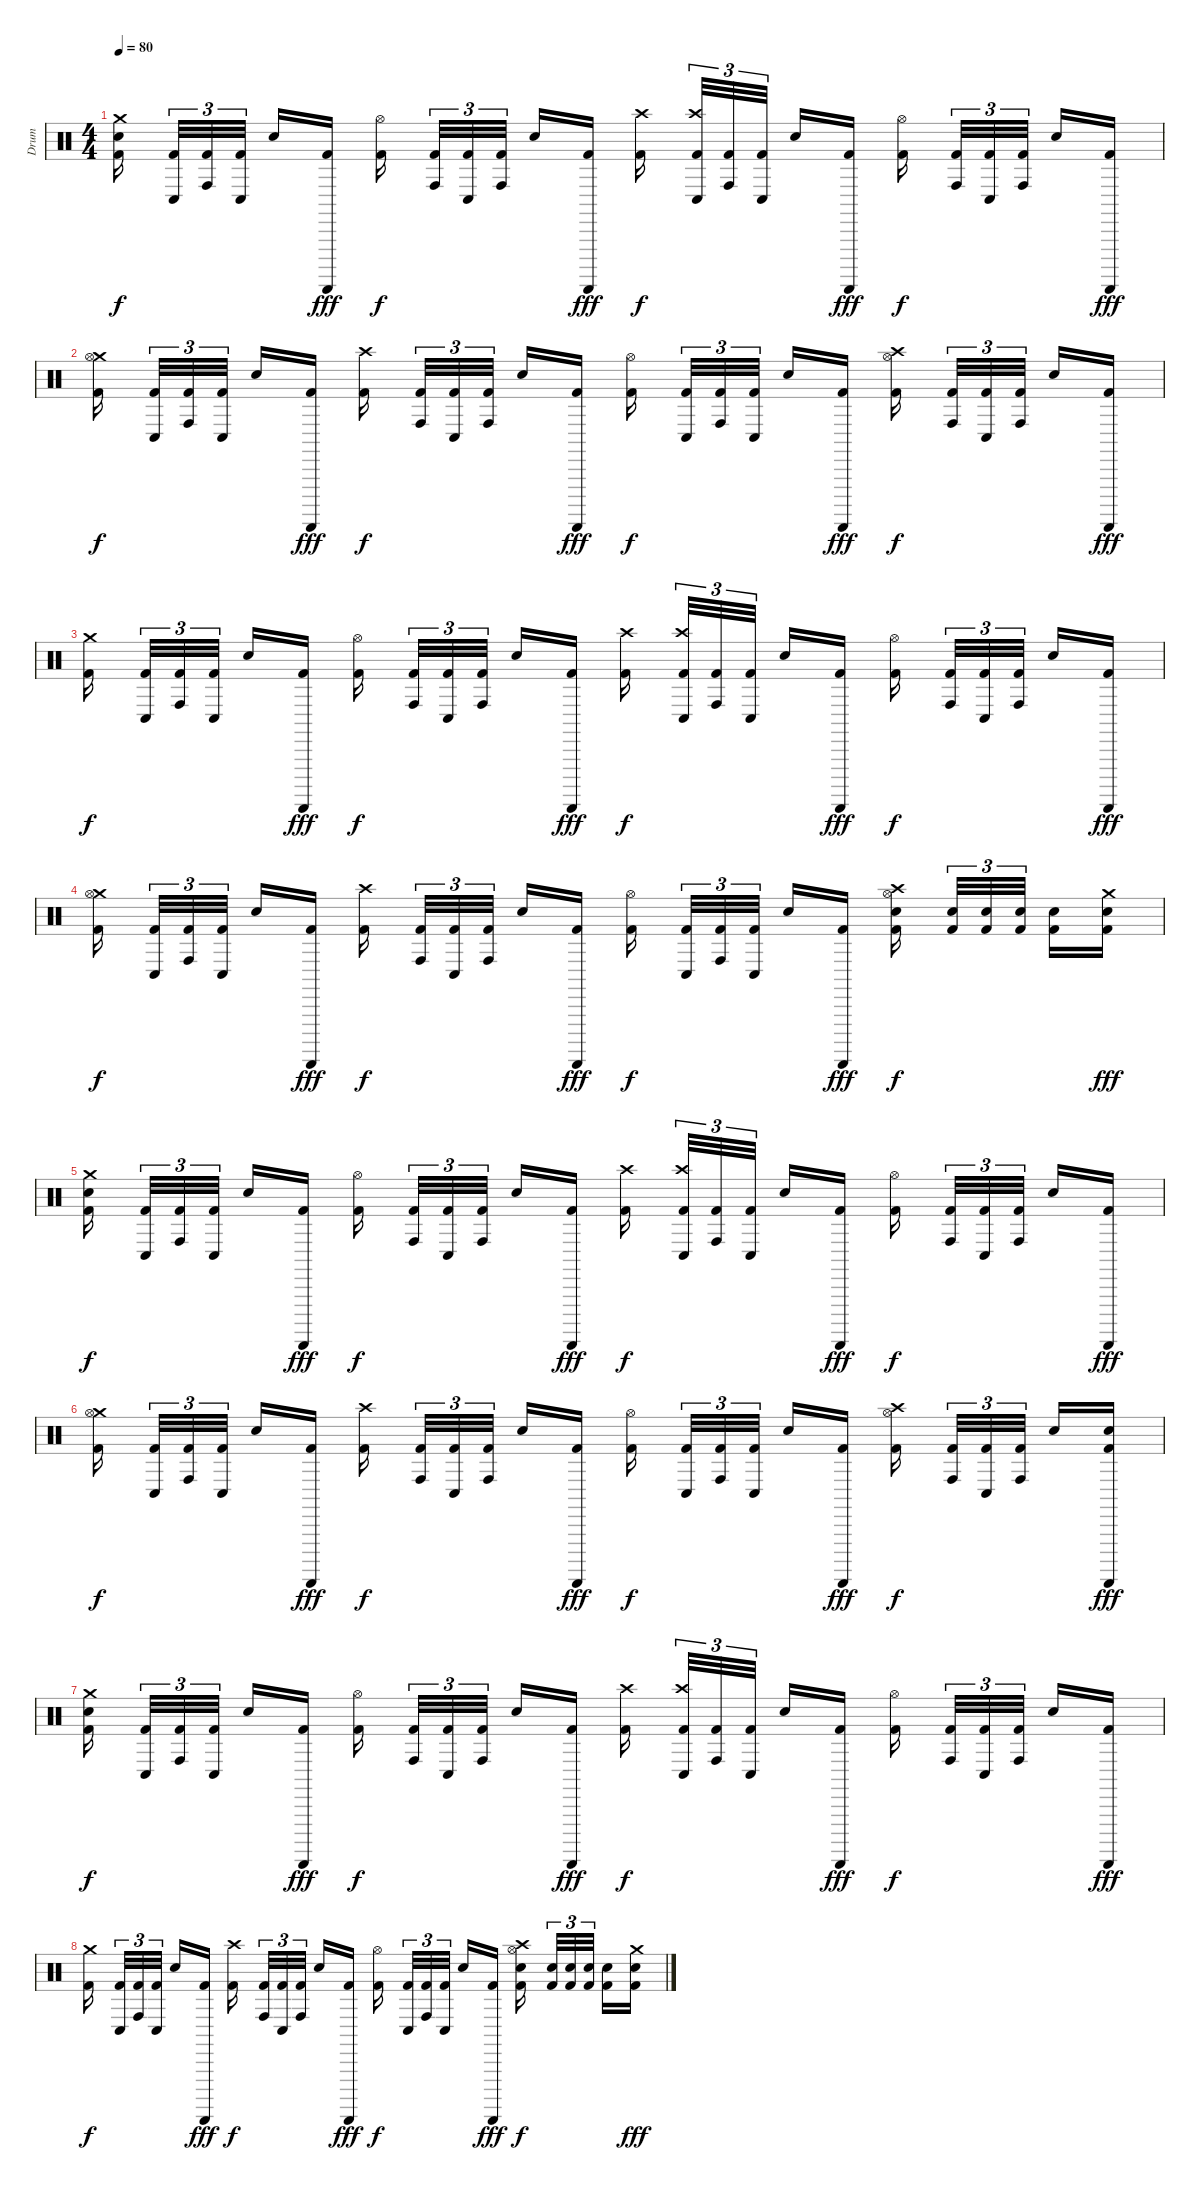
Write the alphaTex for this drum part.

\track ("Drum" "Drum") {instrument percussion}
\staff {score}
\articulation defaults
\ts (4 4)
\tempo 80
\clef neutral
\ks c
("Crash medium (hit)" "Electric Snare (hit)" "Kick (hit) 2").16{dy f} ("Conga low (hit)" "Kick (hit) 2").32{tu (3 2)} ("Conga high (hit)" "Kick (hit) 2").32{tu (3 2)} ("Conga low (hit)" "Kick (hit) 2").32{tu (3 2)} "Electric Snare (hit)".16 ("Guiro (scrap-return)" "Kick (hit) 2").16{dy fff} ("Hi-Hat (open)" "Kick (hit) 2").16{dy f} ("Conga high (hit)" "Kick (hit) 2").32{tu (3 2)} ("Conga low (hit)" "Kick (hit) 2").32{tu (3 2)} ("Conga high (hit)" "Kick (hit) 2").32{tu (3 2)} "Electric Snare (hit)".16 ("Guiro (scrap-return)" "Kick (hit) 2").16{dy fff} ("Crash high (hit)" "Kick (hit) 2").16{dy f} ("Crash high (hit)" "Conga low (hit)" "Kick (hit) 2").32{tu (3 2)} ("Conga high (hit)" "Kick (hit) 2").32{tu (3 2)} ("Conga low (hit)" "Kick (hit) 2").32{tu (3 2)} "Electric Snare (hit)".16 ("Guiro (scrap-return)" "Kick (hit) 2").16{dy fff} ("Hi-Hat (open)" "Kick (hit) 2").16{dy f} ("Conga high (hit)" "Kick (hit) 2").32{tu (3 2)} ("Conga low (hit)" "Kick (hit) 2").32{tu (3 2)} ("Conga high (hit)" "Kick (hit) 2").32{tu (3 2)} "Electric Snare (hit)".16 ("Guiro (scrap-return)" "Kick (hit) 2").16{dy fff} |
("Crash medium (hit)" "Hi-Hat (open)" "Kick (hit) 2").16{dy f} ("Conga low (hit)" "Kick (hit) 2").32{tu (3 2)} ("Conga high (hit)" "Kick (hit) 2").32{tu (3 2)} ("Conga low (hit)" "Kick (hit) 2").32{tu (3 2)} "Electric Snare (hit)".16 ("Guiro (scrap-return)" "Kick (hit) 2").16{dy fff} ("Crash high (hit)" "Kick (hit) 2").16{dy f} ("Conga high (hit)" "Kick (hit) 2").32{tu (3 2)} ("Conga low (hit)" "Kick (hit) 2").32{tu (3 2)} ("Conga high (hit)" "Kick (hit) 2").32{tu (3 2)} "Electric Snare (hit)".16 ("Guiro (scrap-return)" "Kick (hit) 2").16{dy fff} ("Hi-Hat (open)" "Kick (hit) 2").16{dy f} ("Conga low (hit)" "Kick (hit) 2").32{tu (3 2)} ("Conga high (hit)" "Kick (hit) 2").32{tu (3 2)} ("Conga low (hit)" "Kick (hit) 2").32{tu (3 2)} "Electric Snare (hit)".16 ("Guiro (scrap-return)" "Kick (hit) 2").16{dy fff} ("Crash high (hit)" "Hi-Hat (open)" "Kick (hit) 2").16{dy f} ("Conga high (hit)" "Kick (hit) 2").32{tu (3 2)} ("Conga low (hit)" "Kick (hit) 2").32{tu (3 2)} ("Conga high (hit)" "Kick (hit) 2").32{tu (3 2)} "Electric Snare (hit)".16 ("Guiro (scrap-return)" "Kick (hit) 2").16{dy fff} |
("Crash medium (hit)" "Kick (hit) 2").16{dy f} ("Conga low (hit)" "Kick (hit) 2").32{tu (3 2)} ("Conga high (hit)" "Kick (hit) 2").32{tu (3 2)} ("Conga low (hit)" "Kick (hit) 2").32{tu (3 2)} "Electric Snare (hit)".16 ("Guiro (scrap-return)" "Kick (hit) 2").16{dy fff} ("Hi-Hat (open)" "Kick (hit) 2").16{dy f} ("Conga high (hit)" "Kick (hit) 2").32{tu (3 2)} ("Conga low (hit)" "Kick (hit) 2").32{tu (3 2)} ("Conga high (hit)" "Kick (hit) 2").32{tu (3 2)} "Electric Snare (hit)".16 ("Guiro (scrap-return)" "Kick (hit) 2").16{dy fff} ("Crash high (hit)" "Kick (hit) 2").16{dy f} ("Crash high (hit)" "Conga low (hit)" "Kick (hit) 2").32{tu (3 2)} ("Conga high (hit)" "Kick (hit) 2").32{tu (3 2)} ("Conga low (hit)" "Kick (hit) 2").32{tu (3 2)} "Electric Snare (hit)".16 ("Guiro (scrap-return)" "Kick (hit) 2").16{dy fff} ("Hi-Hat (open)" "Kick (hit) 2").16{dy f} ("Conga high (hit)" "Kick (hit) 2").32{tu (3 2)} ("Conga low (hit)" "Kick (hit) 2").32{tu (3 2)} ("Conga high (hit)" "Kick (hit) 2").32{tu (3 2)} "Electric Snare (hit)".16 ("Guiro (scrap-return)" "Kick (hit) 2").16{dy fff} |
("Crash medium (hit)" "Hi-Hat (open)" "Kick (hit) 2").16{dy f} ("Conga low (hit)" "Kick (hit) 2").32{tu (3 2)} ("Conga high (hit)" "Kick (hit) 2").32{tu (3 2)} ("Conga low (hit)" "Kick (hit) 2").32{tu (3 2)} "Electric Snare (hit)".16 ("Guiro (scrap-return)" "Kick (hit) 2").16{dy fff} ("Crash high (hit)" "Kick (hit) 2").16{dy f} ("Conga high (hit)" "Kick (hit) 2").32{tu (3 2)} ("Conga low (hit)" "Kick (hit) 2").32{tu (3 2)} ("Conga high (hit)" "Kick (hit) 2").32{tu (3 2)} "Electric Snare (hit)".16 ("Guiro (scrap-return)" "Kick (hit) 2").16{dy fff} ("Hi-Hat (open)" "Kick (hit) 2").16{dy f} ("Conga low (hit)" "Kick (hit) 2").32{tu (3 2)} ("Conga high (hit)" "Kick (hit) 2").32{tu (3 2)} ("Conga low (hit)" "Kick (hit) 2").32{tu (3 2)} "Electric Snare (hit)".16 ("Guiro (scrap-return)" "Kick (hit) 2").16{dy fff} ("Crash high (hit)" "Hi-Hat (open)" "Electric Snare (hit)" "Kick (hit) 2").16{dy f} ("Electric Snare (hit)" "Kick (hit) 2").32{tu (3 2)} ("Electric Snare (hit)" "Kick (hit) 2").32{tu (3 2)} ("Electric Snare (hit)" "Kick (hit) 2").32{tu (3 2)} ("Electric Snare (hit)" "Kick (hit) 2").16 ("Crash medium (hit)" "Electric Snare (hit)" "Kick (hit) 2").16{dy fff} |
("Crash medium (hit)" "Electric Snare (hit)" "Kick (hit) 2").16{dy f} ("Conga low (hit)" "Kick (hit) 2").32{tu (3 2)} ("Conga high (hit)" "Kick (hit) 2").32{tu (3 2)} ("Conga low (hit)" "Kick (hit) 2").32{tu (3 2)} "Electric Snare (hit)".16 ("Guiro (scrap-return)" "Kick (hit) 2").16{dy fff} ("Hi-Hat (open)" "Kick (hit) 2").16{dy f} ("Conga high (hit)" "Kick (hit) 2").32{tu (3 2)} ("Conga low (hit)" "Kick (hit) 2").32{tu (3 2)} ("Conga high (hit)" "Kick (hit) 2").32{tu (3 2)} "Electric Snare (hit)".16 ("Guiro (scrap-return)" "Kick (hit) 2").16{dy fff} ("Crash high (hit)" "Kick (hit) 2").16{dy f} ("Crash high (hit)" "Conga low (hit)" "Kick (hit) 2").32{tu (3 2)} ("Conga high (hit)" "Kick (hit) 2").32{tu (3 2)} ("Conga low (hit)" "Kick (hit) 2").32{tu (3 2)} "Electric Snare (hit)".16 ("Guiro (scrap-return)" "Kick (hit) 2").16{dy fff} ("Hi-Hat (open)" "Kick (hit) 2").16{dy f} ("Conga high (hit)" "Kick (hit) 2").32{tu (3 2)} ("Conga low (hit)" "Kick (hit) 2").32{tu (3 2)} ("Conga high (hit)" "Kick (hit) 2").32{tu (3 2)} "Electric Snare (hit)".16 ("Guiro (scrap-return)" "Kick (hit) 2").16{dy fff} |
("Crash medium (hit)" "Hi-Hat (open)" "Kick (hit) 2").16{dy f} ("Conga low (hit)" "Kick (hit) 2").32{tu (3 2)} ("Conga high (hit)" "Kick (hit) 2").32{tu (3 2)} ("Conga low (hit)" "Kick (hit) 2").32{tu (3 2)} "Electric Snare (hit)".16 ("Guiro (scrap-return)" "Kick (hit) 2").16{dy fff} ("Crash high (hit)" "Kick (hit) 2").16{dy f} ("Conga high (hit)" "Kick (hit) 2").32{tu (3 2)} ("Conga low (hit)" "Kick (hit) 2").32{tu (3 2)} ("Conga high (hit)" "Kick (hit) 2").32{tu (3 2)} "Electric Snare (hit)".16 ("Guiro (scrap-return)" "Kick (hit) 2").16{dy fff} ("Hi-Hat (open)" "Kick (hit) 2").16{dy f} ("Conga low (hit)" "Kick (hit) 2").32{tu (3 2)} ("Conga high (hit)" "Kick (hit) 2").32{tu (3 2)} ("Conga low (hit)" "Kick (hit) 2").32{tu (3 2)} "Electric Snare (hit)".16 ("Guiro (scrap-return)" "Kick (hit) 2").16{dy fff} ("Crash high (hit)" "Hi-Hat (open)" "Kick (hit) 2").16{dy f} ("Conga high (hit)" "Kick (hit) 2").32{tu (3 2)} ("Conga low (hit)" "Kick (hit) 2").32{tu (3 2)} ("Conga high (hit)" "Kick (hit) 2").32{tu (3 2)} "Electric Snare (hit)".16 ("Guiro (scrap-return)" "Electric Snare (hit)" "Kick (hit) 2").16{dy fff} |
("Crash medium (hit)" "Electric Snare (hit)" "Kick (hit) 2").16{dy f} ("Conga low (hit)" "Kick (hit) 2").32{tu (3 2)} ("Conga high (hit)" "Kick (hit) 2").32{tu (3 2)} ("Conga low (hit)" "Kick (hit) 2").32{tu (3 2)} "Electric Snare (hit)".16 ("Guiro (scrap-return)" "Kick (hit) 2").16{dy fff} ("Hi-Hat (open)" "Kick (hit) 2").16{dy f} ("Conga high (hit)" "Kick (hit) 2").32{tu (3 2)} ("Conga low (hit)" "Kick (hit) 2").32{tu (3 2)} ("Conga high (hit)" "Kick (hit) 2").32{tu (3 2)} "Electric Snare (hit)".16 ("Guiro (scrap-return)" "Kick (hit) 2").16{dy fff} ("Crash high (hit)" "Kick (hit) 2").16{dy f} ("Crash high (hit)" "Conga low (hit)" "Kick (hit) 2").32{tu (3 2)} ("Conga high (hit)" "Kick (hit) 2").32{tu (3 2)} ("Conga low (hit)" "Kick (hit) 2").32{tu (3 2)} "Electric Snare (hit)".16 ("Guiro (scrap-return)" "Kick (hit) 2").16{dy fff} ("Hi-Hat (open)" "Kick (hit) 2").16{dy f} ("Conga high (hit)" "Kick (hit) 2").32{tu (3 2)} ("Conga low (hit)" "Kick (hit) 2").32{tu (3 2)} ("Conga high (hit)" "Kick (hit) 2").32{tu (3 2)} "Electric Snare (hit)".16 ("Guiro (scrap-return)" "Kick (hit) 2").16{dy fff} |
("Crash medium (hit)" "Kick (hit) 2").16{dy f} ("Conga low (hit)" "Kick (hit) 2").32{tu (3 2)} ("Conga high (hit)" "Kick (hit) 2").32{tu (3 2)} ("Conga low (hit)" "Kick (hit) 2").32{tu (3 2)} "Electric Snare (hit)".16 ("Guiro (scrap-return)" "Kick (hit) 2").16{dy fff} ("Crash high (hit)" "Kick (hit) 2").16{dy f} ("Conga high (hit)" "Kick (hit) 2").32{tu (3 2)} ("Conga low (hit)" "Kick (hit) 2").32{tu (3 2)} ("Conga high (hit)" "Kick (hit) 2").32{tu (3 2)} "Electric Snare (hit)".16 ("Guiro (scrap-return)" "Kick (hit) 2").16{dy fff} ("Hi-Hat (open)" "Kick (hit) 2").16{dy f} ("Conga low (hit)" "Kick (hit) 2").32{tu (3 2)} ("Conga high (hit)" "Kick (hit) 2").32{tu (3 2)} ("Conga low (hit)" "Kick (hit) 2").32{tu (3 2)} "Electric Snare (hit)".16 ("Guiro (scrap-return)" "Kick (hit) 2").16{dy fff} ("Crash high (hit)" "Hi-Hat (open)" "Electric Snare (hit)" "Kick (hit) 2").16{dy f} ("Electric Snare (hit)" "Kick (hit) 2").32{tu (3 2)} ("Electric Snare (hit)" "Kick (hit) 2").32{tu (3 2)} ("Electric Snare (hit)" "Kick (hit) 2").32{tu (3 2)} ("Electric Snare (hit)" "Kick (hit) 2").16 ("Crash medium (hit)" "Electric Snare (hit)" "Kick (hit) 2").16{dy fff}
